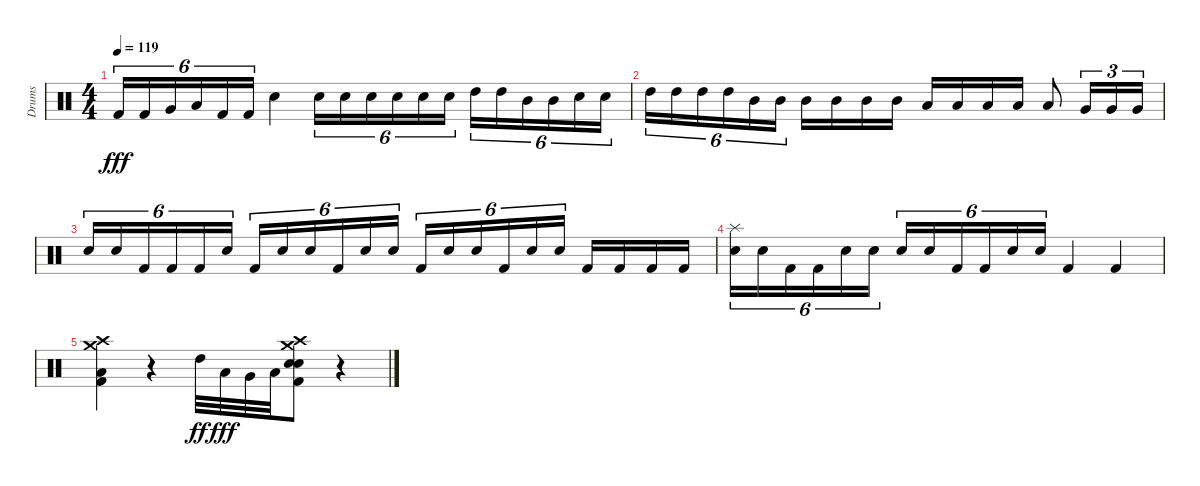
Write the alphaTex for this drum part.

\track ("Drums" "Drums") {instrument percussion}
\staff {score}
\articulation defaults
\ts (4 4)
\tempo 119
\clef neutral
\ks c "Kick (hit) 2".16{tu (6 4) dy fff} "Kick (hit) 2".16{tu (6 4)} "Very Low Tom (hit)".16{tu (6 4)} "Low Floor Tom (hit)".16{tu (6 4)} "Kick (hit) 2".16{tu (6 4)} "Kick (hit) 2".16{tu (6 4)} "Electric Snare (hit)".4 "Electric Snare (hit)".16{tu (6 4)} "Snare (hit) 2".16{tu (6 4)} "Electric Snare (hit)".16{tu (6 4)} "Snare (hit) 2".16{tu (6 4)} "Electric Snare (hit)".16{tu (6 4)} "Snare (hit) 2".16{tu (6 4)} "High Tom (hit)".16{tu (6 4)} "High Tom (hit)".16{tu (6 4)} "Mid Tom (hit)".16{tu (6 4)} "Mid Tom (hit)".16{tu (6 4)} "Snare (hit) 2".16{tu (6 4)} "Snare (hit) 2".16{tu (6 4)}
|
"High Tom (hit)".16{tu (6 4)} "High Tom (hit)".16{tu (6 4)} "High Tom (hit)".16{tu (6 4)} "High Tom (hit)".16{tu (6 4)} "Mid Tom (hit)".16{tu (6 4)} "Mid Tom (hit)".16{tu (6 4)} "Mid Tom (hit)".16 "Mid Tom (hit)".16 "Mid Tom (hit)".16 "Mid Tom (hit)".16 "Low Tom (hit)".16 "Low Tom (hit)".16 "Low Tom (hit)".16 "Low Tom (hit)".16 "Low Tom (hit)".8 "Very Low Tom (hit)".16{tu (3 2)} "Very Low Tom (hit)".16{tu (3 2)} "Very Low Tom (hit)".16{tu (3 2)} |
"Snare (hit) 2".16{tu (6 4)} "Snare (hit) 2".16{tu (6 4)} "Kick (hit) 2".16{tu (6 4)} "Kick (hit) 2".16{tu (6 4)} "Kick (hit) 2".16{tu (6 4)} "Snare (hit) 2".16{tu (6 4)} "Kick (hit) 2".16{tu (6 4)} "Snare (hit) 2".16{tu (6 4)} "Snare (hit) 2".16{tu (6 4)} "Kick (hit) 2".16{tu (6 4)} "Electric Snare (hit)".16{tu (6 4)} "Snare (hit) 2".16{tu (6 4)} "Kick (hit) 2".16{tu (6 4)} "Snare (hit) 2".16{tu (6 4)} "Snare (hit) 2".16{tu (6 4)} "Kick (hit) 2".16{tu (6 4)} "Electric Snare (hit)".16{tu (6 4)} "Snare (hit) 2".16{tu (6 4)} "Kick (hit) 2".16 "Kick (hit) 2".16 "Kick (hit) 2".16 "Kick (hit) 2".16 |
("Snare (hit) 2" "Splash (hit)").16{tu (6 4)} "Snare (hit) 2".16{tu (6 4)} "Kick (hit) 2".16{tu (6 4)} "Kick (hit) 2".16{tu (6 4)} "Electric Snare (hit)".16{tu (6 4)} "Snare (hit) 2".16{tu (6 4)} "Snare (hit) 2".16{tu (6 4)} "Snare (hit) 2".16{tu (6 4)} "Kick (hit) 2".16{tu (6 4)} "Kick (hit) 2".16{tu (6 4)} "Electric Snare (hit)".16{tu (6 4)} "Snare (hit) 2".16{tu (6 4)} "Kick (hit) 2".4 "Kick (hit) 2".4 |
("Crash medium (hit)" "Low Floor Tom (hit)" "Kick (hit) 2" "Crash high (hit)").4 r.4 "High Tom (hit)".32{dy ff} "Low Tom (hit)".32{dy fff} "Very Low Tom (hit)".32 "Low Floor Tom (hit)".32 ("Crash medium (hit)" "Crash high (hit)" "Electric Snare (hit)" "Kick (hit) 2" "Snare (hit) 2").8 r.4
